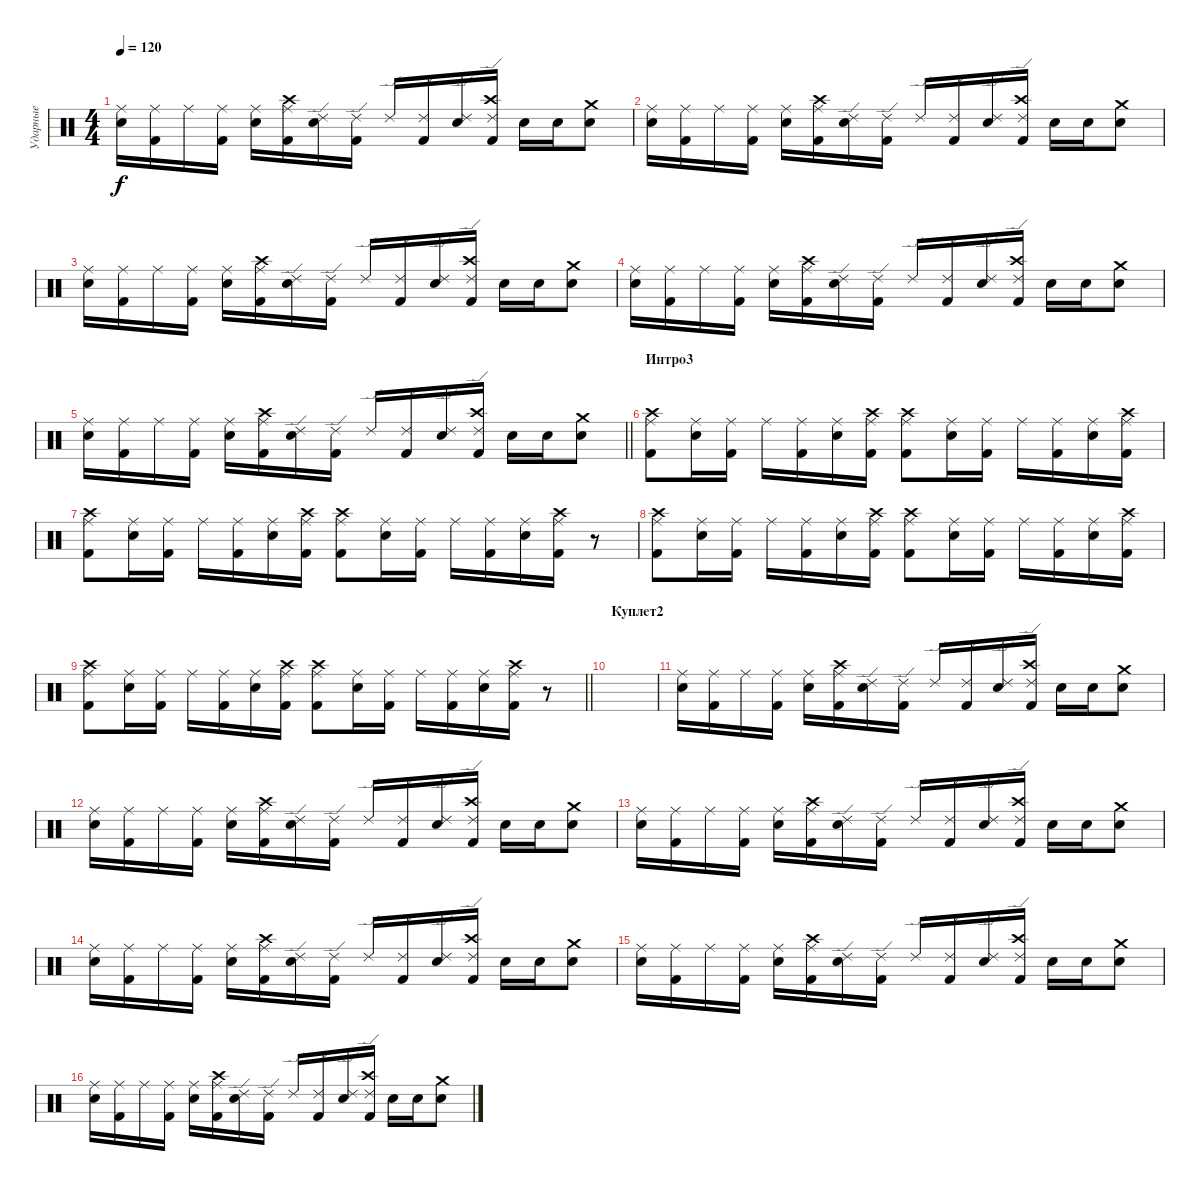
\track ("Ударные" "Ударные") {instrument percussion}
\staff {score}
\articulation defaults
\ts (4 4)
\tempo 120
\clef neutral
\ks c
("Ride (middle)" "Electric Snare (hit)").16{dy f} ("Ride (middle)" "Kick (hit) 2").16 "Ride (middle)".16 ("Ride (middle)" "Kick (hit) 2").16 ("Ride (middle)" "Electric Snare (hit)").16 ("Crash high (hit)" "Ride (middle)" "Kick (hit) 2").16 ("Ride (edge) 2" "Electric Snare (hit)").16 ("Ride (edge) 2" "Kick (hit) 2").16 "Ride (edge) 2".16 ("Ride (edge) 2" "Kick (hit) 2").16 ("Ride (edge) 2" "Electric Snare (hit)").16 ("Crash high (hit)" "Ride (edge) 2" "Kick (hit) 2").16 "Snare (hit) 2".16 "Electric Snare (hit)".16 ("Electric Snare (hit)" "Crash medium (hit)").8 |
("Ride (middle)" "Electric Snare (hit)").16 ("Ride (middle)" "Kick (hit) 2").16 "Ride (middle)".16 ("Ride (middle)" "Kick (hit) 2").16 ("Ride (middle)" "Electric Snare (hit)").16 ("Crash high (hit)" "Ride (middle)" "Kick (hit) 2").16 ("Ride (edge) 2" "Electric Snare (hit)").16 ("Ride (edge) 2" "Kick (hit) 2").16 "Ride (edge) 2".16 ("Ride (edge) 2" "Kick (hit) 2").16 ("Ride (edge) 2" "Electric Snare (hit)").16 ("Crash high (hit)" "Ride (edge) 2" "Kick (hit) 2").16 "Snare (hit) 2".16 "Electric Snare (hit)".16 ("Electric Snare (hit)" "Crash medium (hit)").8 |
("Ride (middle)" "Electric Snare (hit)").16 ("Ride (middle)" "Kick (hit) 2").16 "Ride (middle)".16 ("Ride (middle)" "Kick (hit) 2").16 ("Ride (middle)" "Electric Snare (hit)").16 ("Crash high (hit)" "Ride (middle)" "Kick (hit) 2").16 ("Ride (edge) 2" "Electric Snare (hit)").16 ("Ride (edge) 2" "Kick (hit) 2").16 "Ride (edge) 2".16 ("Ride (edge) 2" "Kick (hit) 2").16 ("Ride (edge) 2" "Electric Snare (hit)").16 ("Crash high (hit)" "Ride (edge) 2" "Kick (hit) 2").16 "Snare (hit) 2".16 "Electric Snare (hit)".16 ("Electric Snare (hit)" "Crash medium (hit)").8 |
("Ride (middle)" "Electric Snare (hit)").16 ("Ride (middle)" "Kick (hit) 2").16 "Ride (middle)".16 ("Ride (middle)" "Kick (hit) 2").16 ("Ride (middle)" "Electric Snare (hit)").16 ("Crash high (hit)" "Ride (middle)" "Kick (hit) 2").16 ("Ride (edge) 2" "Electric Snare (hit)").16 ("Ride (edge) 2" "Kick (hit) 2").16 "Ride (edge) 2".16 ("Ride (edge) 2" "Kick (hit) 2").16 ("Ride (edge) 2" "Electric Snare (hit)").16 ("Crash high (hit)" "Ride (edge) 2" "Kick (hit) 2").16 "Snare (hit) 2".16 "Electric Snare (hit)".16 ("Electric Snare (hit)" "Crash medium (hit)").8 |
\barLineRight lightlight
("Ride (middle)" "Electric Snare (hit)").16 ("Ride (middle)" "Kick (hit) 2").16 "Ride (middle)".16 ("Ride (middle)" "Kick (hit) 2").16 ("Ride (middle)" "Electric Snare (hit)").16 ("Crash high (hit)" "Ride (middle)" "Kick (hit) 2").16 ("Ride (edge) 2" "Electric Snare (hit)").16 ("Ride (edge) 2" "Kick (hit) 2").16 "Ride (edge) 2".16 ("Ride (edge) 2" "Kick (hit) 2").16 ("Ride (edge) 2" "Electric Snare (hit)").16 ("Crash high (hit)" "Ride (edge) 2" "Kick (hit) 2").16 "Snare (hit) 2".16 "Electric Snare (hit)".16 ("Electric Snare (hit)" "Crash medium (hit)").8 |
\section ("" "Интро3")
("Crash high (hit)" "Ride (middle)" "Kick (hit) 2").8 ("Ride (middle)" "Electric Snare (hit)").16 ("Ride (middle)" "Kick (hit) 2").16 "Ride (middle)".16 ("Ride (middle)" "Kick (hit) 2").16 ("Ride (middle)" "Electric Snare (hit)").16 ("Crash high (hit)" "Ride (middle)" "Kick (hit) 2").16 ("Crash high (hit)" "Ride (middle)" "Kick (hit) 2").8 ("Ride (middle)" "Electric Snare (hit)").16 ("Ride (middle)" "Kick (hit) 2").16 "Ride (middle)".16 ("Ride (middle)" "Kick (hit) 2").16 ("Ride (middle)" "Electric Snare (hit)").16 ("Crash high (hit)" "Ride (middle)" "Kick (hit) 2").16 |
("Crash high (hit)" "Ride (middle)" "Kick (hit) 2").8 ("Ride (middle)" "Electric Snare (hit)").16 ("Ride (middle)" "Kick (hit) 2").16 "Ride (middle)".16 ("Ride (middle)" "Kick (hit) 2").16 ("Ride (middle)" "Electric Snare (hit)").16 ("Crash high (hit)" "Ride (middle)" "Kick (hit) 2").16 ("Crash high (hit)" "Ride (middle)" "Kick (hit) 2").8 ("Ride (middle)" "Electric Snare (hit)").16 ("Ride (middle)" "Kick (hit) 2").16 "Ride (middle)".16 ("Ride (middle)" "Kick (hit) 2").16 ("Ride (middle)" "Electric Snare (hit)").16 ("Crash high (hit)" "Ride (middle)" "Kick (hit) 2").16 r.8 |
("Crash high (hit)" "Ride (middle)" "Kick (hit) 2").8 ("Ride (middle)" "Electric Snare (hit)").16 ("Ride (middle)" "Kick (hit) 2").16 "Ride (middle)".16 ("Ride (middle)" "Kick (hit) 2").16 ("Ride (middle)" "Electric Snare (hit)").16 ("Crash high (hit)" "Ride (middle)" "Kick (hit) 2").16 ("Crash high (hit)" "Ride (middle)" "Kick (hit) 2").8 ("Ride (middle)" "Electric Snare (hit)").16 ("Ride (middle)" "Kick (hit) 2").16 "Ride (middle)".16 ("Ride (middle)" "Kick (hit) 2").16 ("Ride (middle)" "Electric Snare (hit)").16 ("Crash high (hit)" "Ride (middle)" "Kick (hit) 2").16 |
\barLineRight lightlight
("Crash high (hit)" "Ride (middle)" "Kick (hit) 2").8 ("Ride (middle)" "Electric Snare (hit)").16 ("Ride (middle)" "Kick (hit) 2").16 "Ride (middle)".16 ("Ride (middle)" "Kick (hit) 2").16 ("Ride (middle)" "Electric Snare (hit)").16 ("Crash high (hit)" "Ride (middle)" "Kick (hit) 2").16 ("Crash high (hit)" "Ride (middle)" "Kick (hit) 2").8 ("Ride (middle)" "Electric Snare (hit)").16 ("Ride (middle)" "Kick (hit) 2").16 "Ride (middle)".16 ("Ride (middle)" "Kick (hit) 2").16 ("Ride (middle)" "Electric Snare (hit)").16 ("Crash high (hit)" "Ride (middle)" "Kick (hit) 2").16 r.8 |
\section ("" "Куплет2")
|
("Ride (middle)" "Electric Snare (hit)").16 ("Ride (middle)" "Kick (hit) 2").16 "Ride (middle)".16 ("Ride (middle)" "Kick (hit) 2").16 ("Ride (middle)" "Electric Snare (hit)").16 ("Crash high (hit)" "Ride (middle)" "Kick (hit) 2").16 ("Ride (edge) 2" "Electric Snare (hit)").16 ("Ride (edge) 2" "Kick (hit) 2").16 "Ride (edge) 2".16 ("Ride (edge) 2" "Kick (hit) 2").16 ("Ride (edge) 2" "Electric Snare (hit)").16 ("Crash high (hit)" "Ride (edge) 2" "Kick (hit) 2").16 "Snare (hit) 2".16 "Electric Snare (hit)".16 ("Electric Snare (hit)" "Crash medium (hit)").8 |
("Ride (middle)" "Electric Snare (hit)").16 ("Ride (middle)" "Kick (hit) 2").16 "Ride (middle)".16 ("Ride (middle)" "Kick (hit) 2").16 ("Ride (middle)" "Electric Snare (hit)").16 ("Crash high (hit)" "Ride (middle)" "Kick (hit) 2").16 ("Ride (edge) 2" "Electric Snare (hit)").16 ("Ride (edge) 2" "Kick (hit) 2").16 "Ride (edge) 2".16 ("Ride (edge) 2" "Kick (hit) 2").16 ("Ride (edge) 2" "Electric Snare (hit)").16 ("Crash high (hit)" "Ride (edge) 2" "Kick (hit) 2").16 "Snare (hit) 2".16 "Electric Snare (hit)".16 ("Electric Snare (hit)" "Crash medium (hit)").8 |
("Ride (middle)" "Electric Snare (hit)").16 ("Ride (middle)" "Kick (hit) 2").16 "Ride (middle)".16 ("Ride (middle)" "Kick (hit) 2").16 ("Ride (middle)" "Electric Snare (hit)").16 ("Crash high (hit)" "Ride (middle)" "Kick (hit) 2").16 ("Ride (edge) 2" "Electric Snare (hit)").16 ("Ride (edge) 2" "Kick (hit) 2").16 "Ride (edge) 2".16 ("Ride (edge) 2" "Kick (hit) 2").16 ("Ride (edge) 2" "Electric Snare (hit)").16 ("Crash high (hit)" "Ride (edge) 2" "Kick (hit) 2").16 "Snare (hit) 2".16 "Electric Snare (hit)".16 ("Electric Snare (hit)" "Crash medium (hit)").8 |
("Ride (middle)" "Electric Snare (hit)").16 ("Ride (middle)" "Kick (hit) 2").16 "Ride (middle)".16 ("Ride (middle)" "Kick (hit) 2").16 ("Ride (middle)" "Electric Snare (hit)").16 ("Crash high (hit)" "Ride (middle)" "Kick (hit) 2").16 ("Ride (edge) 2" "Electric Snare (hit)").16 ("Ride (edge) 2" "Kick (hit) 2").16 "Ride (edge) 2".16 ("Ride (edge) 2" "Kick (hit) 2").16 ("Ride (edge) 2" "Electric Snare (hit)").16 ("Crash high (hit)" "Ride (edge) 2" "Kick (hit) 2").16 "Snare (hit) 2".16 "Electric Snare (hit)".16 ("Electric Snare (hit)" "Crash medium (hit)").8 |
("Ride (middle)" "Electric Snare (hit)").16 ("Ride (middle)" "Kick (hit) 2").16 "Ride (middle)".16 ("Ride (middle)" "Kick (hit) 2").16 ("Ride (middle)" "Electric Snare (hit)").16 ("Crash high (hit)" "Ride (middle)" "Kick (hit) 2").16 ("Ride (edge) 2" "Electric Snare (hit)").16 ("Ride (edge) 2" "Kick (hit) 2").16 "Ride (edge) 2".16 ("Ride (edge) 2" "Kick (hit) 2").16 ("Ride (edge) 2" "Electric Snare (hit)").16 ("Crash high (hit)" "Ride (edge) 2" "Kick (hit) 2").16 "Snare (hit) 2".16 "Electric Snare (hit)".16 ("Electric Snare (hit)" "Crash medium (hit)").8 |
("Ride (middle)" "Electric Snare (hit)").16 ("Ride (middle)" "Kick (hit) 2").16 "Ride (middle)".16 ("Ride (middle)" "Kick (hit) 2").16 ("Ride (middle)" "Electric Snare (hit)").16 ("Crash high (hit)" "Ride (middle)" "Kick (hit) 2").16 ("Ride (edge) 2" "Electric Snare (hit)").16 ("Ride (edge) 2" "Kick (hit) 2").16 "Ride (edge) 2".16 ("Ride (edge) 2" "Kick (hit) 2").16 ("Ride (edge) 2" "Electric Snare (hit)").16 ("Crash high (hit)" "Ride (edge) 2" "Kick (hit) 2").16 "Snare (hit) 2".16 "Electric Snare (hit)".16 ("Electric Snare (hit)" "Crash medium (hit)").8
